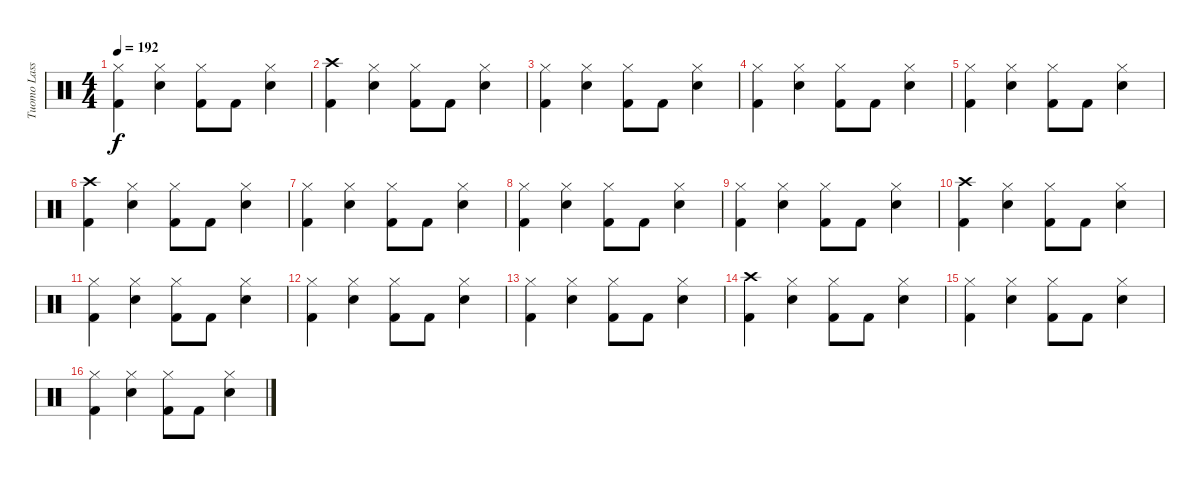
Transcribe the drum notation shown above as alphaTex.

\track ("Tuomo Lassilla" "Tuomo Lass") {instrument percussion}
\staff {score}
\articulation defaults
\ts (4 4)
\tempo 192
\clef neutral
\ks c
("Kick (hit) 2" "Hi-Hat (closed)").4{dy f} ("Electric Snare (hit)" "Hi-Hat (closed)").4 ("Kick (hit) 2" "Hi-Hat (closed)").8 "Kick (hit) 2".8 ("Electric Snare (hit)" "Hi-Hat (closed)").4 |
("Kick (hit) 2" "Crash high (hit)").4 ("Electric Snare (hit)" "Hi-Hat (closed)").4 ("Kick (hit) 2" "Hi-Hat (closed)").8 "Kick (hit) 2".8 ("Electric Snare (hit)" "Hi-Hat (closed)").4 |
("Kick (hit) 2" "Hi-Hat (closed)").4 ("Electric Snare (hit)" "Hi-Hat (closed)").4 ("Kick (hit) 2" "Hi-Hat (closed)").8 "Kick (hit) 2".8 ("Electric Snare (hit)" "Hi-Hat (closed)").4 |
("Kick (hit) 2" "Hi-Hat (closed)").4 ("Electric Snare (hit)" "Hi-Hat (closed)").4 ("Kick (hit) 2" "Hi-Hat (closed)").8 "Kick (hit) 2".8 ("Electric Snare (hit)" "Hi-Hat (closed)").4 |
("Kick (hit) 2" "Hi-Hat (closed)").4 ("Electric Snare (hit)" "Hi-Hat (closed)").4 ("Kick (hit) 2" "Hi-Hat (closed)").8 "Kick (hit) 2".8 ("Electric Snare (hit)" "Hi-Hat (closed)").4 |
("Kick (hit) 2" "Crash high (hit)").4 ("Electric Snare (hit)" "Hi-Hat (closed)").4 ("Kick (hit) 2" "Hi-Hat (closed)").8 "Kick (hit) 2".8 ("Electric Snare (hit)" "Hi-Hat (closed)").4 |
("Kick (hit) 2" "Hi-Hat (closed)").4 ("Electric Snare (hit)" "Hi-Hat (closed)").4 ("Kick (hit) 2" "Hi-Hat (closed)").8 "Kick (hit) 2".8 ("Electric Snare (hit)" "Hi-Hat (closed)").4 |
("Kick (hit) 2" "Hi-Hat (closed)").4 ("Electric Snare (hit)" "Hi-Hat (closed)").4 ("Kick (hit) 2" "Hi-Hat (closed)").8 "Kick (hit) 2".8 ("Electric Snare (hit)" "Hi-Hat (closed)").4 |
("Kick (hit) 2" "Hi-Hat (closed)").4 ("Electric Snare (hit)" "Hi-Hat (closed)").4 ("Kick (hit) 2" "Hi-Hat (closed)").8 "Kick (hit) 2".8 ("Electric Snare (hit)" "Hi-Hat (closed)").4 |
("Kick (hit) 2" "Crash high (hit)").4 ("Electric Snare (hit)" "Hi-Hat (closed)").4 ("Kick (hit) 2" "Hi-Hat (closed)").8 "Kick (hit) 2".8 ("Electric Snare (hit)" "Hi-Hat (closed)").4 |
("Kick (hit) 2" "Hi-Hat (closed)").4 ("Electric Snare (hit)" "Hi-Hat (closed)").4 ("Kick (hit) 2" "Hi-Hat (closed)").8 "Kick (hit) 2".8 ("Electric Snare (hit)" "Hi-Hat (closed)").4 |
("Kick (hit) 2" "Hi-Hat (closed)").4 ("Electric Snare (hit)" "Hi-Hat (closed)").4 ("Kick (hit) 2" "Hi-Hat (closed)").8 "Kick (hit) 2".8 ("Electric Snare (hit)" "Hi-Hat (closed)").4 |
("Kick (hit) 2" "Hi-Hat (closed)").4 ("Electric Snare (hit)" "Hi-Hat (closed)").4 ("Kick (hit) 2" "Hi-Hat (closed)").8 "Kick (hit) 2".8 ("Electric Snare (hit)" "Hi-Hat (closed)").4 |
("Kick (hit) 2" "Crash high (hit)").4 ("Electric Snare (hit)" "Hi-Hat (closed)").4 ("Kick (hit) 2" "Hi-Hat (closed)").8 "Kick (hit) 2".8 ("Electric Snare (hit)" "Hi-Hat (closed)").4 |
("Kick (hit) 2" "Hi-Hat (closed)").4 ("Electric Snare (hit)" "Hi-Hat (closed)").4 ("Kick (hit) 2" "Hi-Hat (closed)").8 "Kick (hit) 2".8 ("Electric Snare (hit)" "Hi-Hat (closed)").4 |
("Kick (hit) 2" "Hi-Hat (closed)").4 ("Electric Snare (hit)" "Hi-Hat (closed)").4 ("Kick (hit) 2" "Hi-Hat (closed)").8 "Kick (hit) 2".8 ("Electric Snare (hit)" "Hi-Hat (closed)").4
